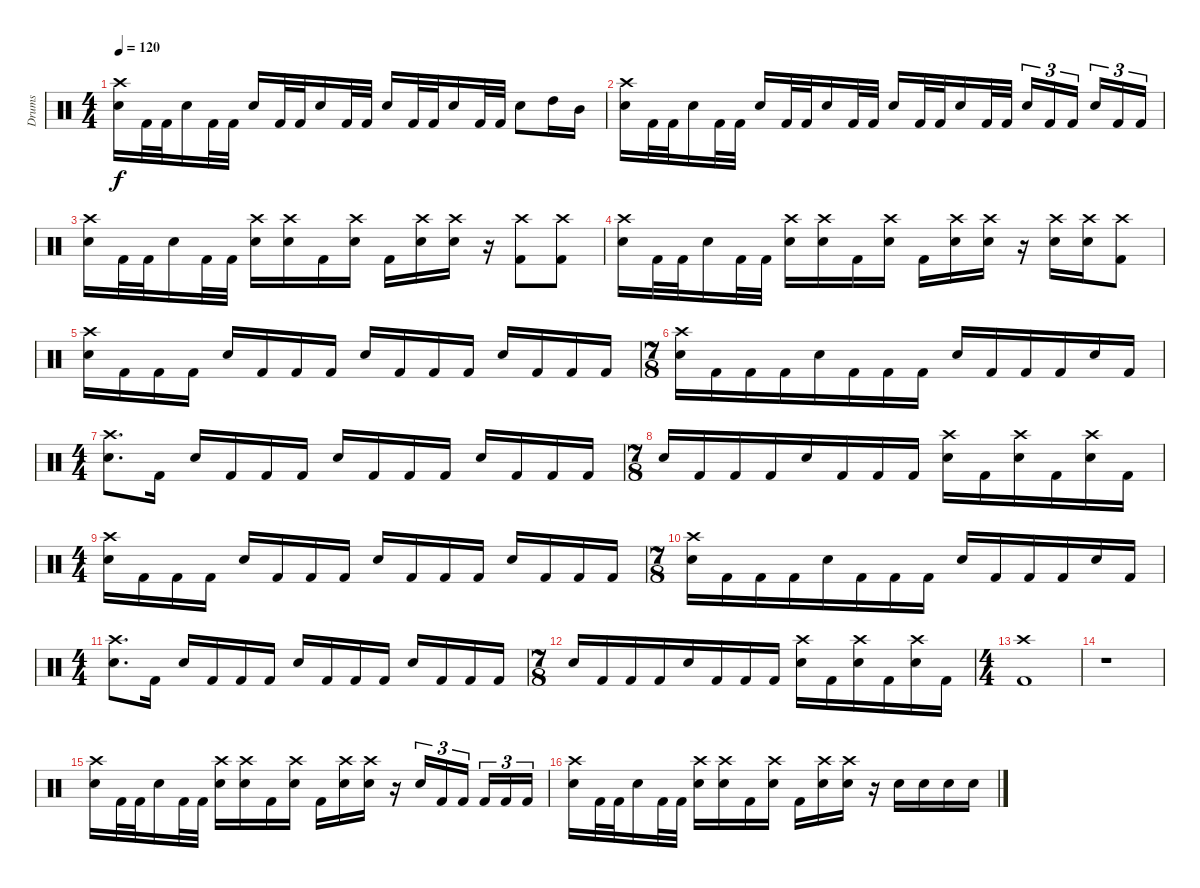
\track ("Drums" "Drums") {instrument percussion}
\staff {score}
\articulation defaults
\ts (4 4)
\tempo 120
\clef neutral
\ks c
("Crash high (hit)" "Electric Snare (hit)").16{dy f} "Kick (hit) 2".32 "Kick (hit) 2".32 "Electric Snare (hit)".16 "Kick (hit) 2".32 "Kick (hit) 2".32 "Electric Snare (hit)".16 "Kick (hit) 2".32 "Kick (hit) 2".32 "Electric Snare (hit)".16 "Kick (hit) 2".32 "Kick (hit) 2".32 "Electric Snare (hit)".16 "Kick (hit) 2".32 "Kick (hit) 2".32 "Electric Snare (hit)".16 "Kick (hit) 2".32 "Kick (hit) 2".32 "Electric Snare (hit)".8 "High Tom (hit)".16 "Mid Tom (hit)".16 |
("Crash high (hit)" "Electric Snare (hit)").16 "Kick (hit) 2".32 "Kick (hit) 2".32 "Electric Snare (hit)".16 "Kick (hit) 2".32 "Kick (hit) 2".32 "Electric Snare (hit)".16 "Kick (hit) 2".32 "Kick (hit) 2".32 "Electric Snare (hit)".16 "Kick (hit) 2".32 "Kick (hit) 2".32 "Electric Snare (hit)".16 "Kick (hit) 2".32 "Kick (hit) 2".32 "Electric Snare (hit)".16 "Kick (hit) 2".32 "Kick (hit) 2".32 "Electric Snare (hit)".16{tu (3 2)} "Kick (hit) 2".16{tu (3 2)} "Kick (hit) 2".16{tu (3 2) beam splitsecondary} "Electric Snare (hit)".16{tu (3 2)} "Kick (hit) 2".16{tu (3 2)} "Kick (hit) 2".16{tu (3 2)} |
("Crash high (hit)" "Electric Snare (hit)").16 "Kick (hit) 2".32 "Kick (hit) 2".32 "Electric Snare (hit)".16 "Kick (hit) 2".32 "Kick (hit) 2".32 ("Crash high (hit)" "Electric Snare (hit)").16 ("Crash high (hit)" "Electric Snare (hit)").16 "Kick (hit) 2".16 ("Crash high (hit)" "Electric Snare (hit)").16 "Kick (hit) 2".16 ("Crash high (hit)" "Electric Snare (hit)").16 ("Crash high (hit)" "Electric Snare (hit)").16 r.16 ("Crash high (hit)" "Kick (hit) 2").8 ("Crash high (hit)" "Kick (hit) 2").8 |
("Crash high (hit)" "Electric Snare (hit)").16 "Kick (hit) 2".32 "Kick (hit) 2".32 "Electric Snare (hit)".16 "Kick (hit) 2".32 "Kick (hit) 2".32 ("Crash high (hit)" "Electric Snare (hit)").16 ("Crash high (hit)" "Electric Snare (hit)").16 "Kick (hit) 2".16 ("Crash high (hit)" "Electric Snare (hit)").16 "Kick (hit) 2".16 ("Crash high (hit)" "Electric Snare (hit)").16 ("Crash high (hit)" "Electric Snare (hit)").16 r.16 ("Crash high (hit)" "Electric Snare (hit)").16 ("Crash high (hit)" "Electric Snare (hit)").16 ("Crash high (hit)" "Kick (hit) 2").8 |
("Crash high (hit)" "Electric Snare (hit)").16 "Kick (hit) 2".16 "Kick (hit) 2".16 "Kick (hit) 2".16 "Electric Snare (hit)".16 "Kick (hit) 2".16 "Kick (hit) 2".16 "Kick (hit) 2".16 "Electric Snare (hit)".16 "Kick (hit) 2".16 "Kick (hit) 2".16 "Kick (hit) 2".16 "Electric Snare (hit)".16 "Kick (hit) 2".16 "Kick (hit) 2".16 "Kick (hit) 2".16 |
\ts (7 8)
("Crash high (hit)" "Electric Snare (hit)").16 "Kick (hit) 2".16 "Kick (hit) 2".16 "Kick (hit) 2".16 "Electric Snare (hit)".16 "Kick (hit) 2".16 "Kick (hit) 2".16 "Kick (hit) 2".16 "Electric Snare (hit)".16 "Kick (hit) 2".16 "Kick (hit) 2".16 "Kick (hit) 2".16 "Electric Snare (hit)".16 "Kick (hit) 2".16 |
\ts (4 4)
("Crash high (hit)" "Electric Snare (hit)").8{d} "Kick (hit) 2".16 "Electric Snare (hit)".16 "Kick (hit) 2".16 "Kick (hit) 2".16 "Kick (hit) 2".16 "Electric Snare (hit)".16 "Kick (hit) 2".16 "Kick (hit) 2".16 "Kick (hit) 2".16 "Electric Snare (hit)".16 "Kick (hit) 2".16 "Kick (hit) 2".16 "Kick (hit) 2".16 |
\ts (7 8)
"Electric Snare (hit)".16 "Kick (hit) 2".16 "Kick (hit) 2".16 "Kick (hit) 2".16 "Electric Snare (hit)".16 "Kick (hit) 2".16 "Kick (hit) 2".16 "Kick (hit) 2".16 ("Crash high (hit)" "Electric Snare (hit)").16 "Kick (hit) 2".16 ("Crash high (hit)" "Electric Snare (hit)").16 "Kick (hit) 2".16 ("Crash high (hit)" "Electric Snare (hit)").16 "Kick (hit) 2".16 |
\ts (4 4)
("Crash high (hit)" "Electric Snare (hit)").16 "Kick (hit) 2".16 "Kick (hit) 2".16 "Kick (hit) 2".16 "Electric Snare (hit)".16 "Kick (hit) 2".16 "Kick (hit) 2".16 "Kick (hit) 2".16 "Electric Snare (hit)".16 "Kick (hit) 2".16 "Kick (hit) 2".16 "Kick (hit) 2".16 "Electric Snare (hit)".16 "Kick (hit) 2".16 "Kick (hit) 2".16 "Kick (hit) 2".16 |
\ts (7 8)
("Crash high (hit)" "Electric Snare (hit)").16 "Kick (hit) 2".16 "Kick (hit) 2".16 "Kick (hit) 2".16 "Electric Snare (hit)".16 "Kick (hit) 2".16 "Kick (hit) 2".16 "Kick (hit) 2".16 "Electric Snare (hit)".16 "Kick (hit) 2".16 "Kick (hit) 2".16 "Kick (hit) 2".16 "Electric Snare (hit)".16 "Kick (hit) 2".16 |
\ts (4 4)
("Crash high (hit)" "Electric Snare (hit)").8{d} "Kick (hit) 2".16 "Electric Snare (hit)".16 "Kick (hit) 2".16 "Kick (hit) 2".16 "Kick (hit) 2".16 "Electric Snare (hit)".16 "Kick (hit) 2".16 "Kick (hit) 2".16 "Kick (hit) 2".16 "Electric Snare (hit)".16 "Kick (hit) 2".16 "Kick (hit) 2".16 "Kick (hit) 2".16 |
\ts (7 8)
"Electric Snare (hit)".16 "Kick (hit) 2".16 "Kick (hit) 2".16 "Kick (hit) 2".16 "Electric Snare (hit)".16 "Kick (hit) 2".16 "Kick (hit) 2".16 "Kick (hit) 2".16 ("Crash high (hit)" "Electric Snare (hit)").16 "Kick (hit) 2".16 ("Crash high (hit)" "Electric Snare (hit)").16 "Kick (hit) 2".16 ("Crash high (hit)" "Electric Snare (hit)").16 "Kick (hit) 2".16 |
\ts (4 4)
("Crash high (hit)" "Kick (hit) 2").1 |
r.1 |
("Crash high (hit)" "Electric Snare (hit)").16 "Kick (hit) 2".32 "Kick (hit) 2".32 "Electric Snare (hit)".16 "Kick (hit) 2".32 "Kick (hit) 2".32 ("Crash high (hit)" "Electric Snare (hit)").16 ("Crash high (hit)" "Electric Snare (hit)").16 "Kick (hit) 2".16 ("Crash high (hit)" "Electric Snare (hit)").16 "Kick (hit) 2".16 ("Crash high (hit)" "Electric Snare (hit)").16 ("Crash high (hit)" "Electric Snare (hit)").16 r.16 "Electric Snare (hit)".16{tu (3 2)} "Kick (hit) 2".16{tu (3 2)} "Kick (hit) 2".16{tu (3 2) beam splitsecondary} "Kick (hit) 2".16{tu (3 2)} "Kick (hit) 2".16{tu (3 2)} "Kick (hit) 2".16{tu (3 2)} |
("Crash high (hit)" "Electric Snare (hit)").16 "Kick (hit) 2".32 "Kick (hit) 2".32 "Electric Snare (hit)".16 "Kick (hit) 2".32 "Kick (hit) 2".32 ("Crash high (hit)" "Electric Snare (hit)").16 ("Crash high (hit)" "Electric Snare (hit)").16 "Kick (hit) 2".16 ("Crash high (hit)" "Electric Snare (hit)").16 "Kick (hit) 2".16 ("Crash high (hit)" "Electric Snare (hit)").16 ("Crash high (hit)" "Electric Snare (hit)").16 r.16 "Electric Snare (hit)".16 "Electric Snare (hit)".16 "Electric Snare (hit)".16 "Electric Snare (hit)".16
